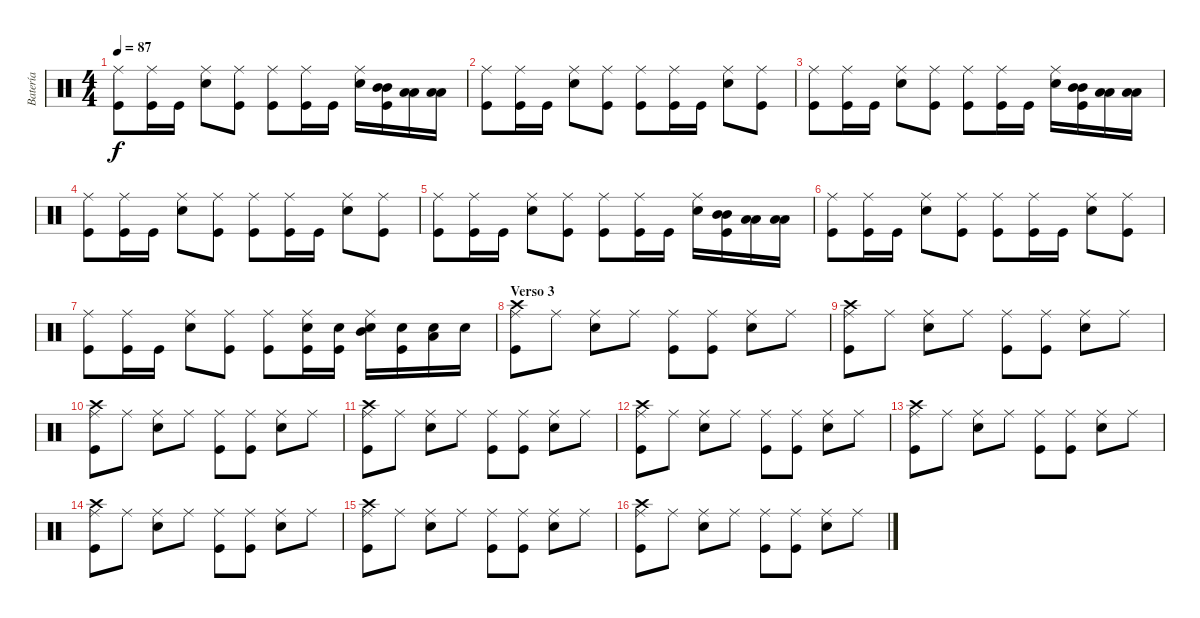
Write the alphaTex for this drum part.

\track ("Batería" "Batería") {instrument percussion}
\staff {score}
\articulation defaults
\ts (4 4)
\tempo 87
\clef neutral
\ks c
("Ride (middle)" "Kick (hit)").8{dy f} ("Ride (middle)" "Kick (hit)").16 "Kick (hit)".16 ("Ride (middle)" "Snare (hit) 2").8 ("Ride (middle)" "Kick (hit)").8 ("Ride (middle)" "Kick (hit)").8 ("Ride (middle)" "Kick (hit)").16 "Kick (hit)".16 ("Ride (middle)" "Snare (hit) 2").16 ("Mid Tom (hit)" "Mid Tom (hit)" "Kick (hit)").16 ("Low Tom (hit)" "Low Tom (hit)").16 ("Low Floor Tom (hit)" "Low Floor Tom (hit)").16 |
("Ride (middle)" "Kick (hit)").8 ("Ride (middle)" "Kick (hit)").16 "Kick (hit)".16 ("Ride (middle)" "Snare (hit) 2").8 ("Ride (middle)" "Kick (hit)").8 ("Ride (middle)" "Kick (hit)").8 ("Ride (middle)" "Kick (hit)").16 "Kick (hit)".16 ("Ride (middle)" "Snare (hit) 2").8 ("Ride (middle)" "Kick (hit)").8 |
("Ride (middle)" "Kick (hit)").8 ("Ride (middle)" "Kick (hit)").16 "Kick (hit)".16 ("Ride (middle)" "Snare (hit) 2").8 ("Ride (middle)" "Kick (hit)").8 ("Ride (middle)" "Kick (hit)").8 ("Ride (middle)" "Kick (hit)").16 "Kick (hit)".16 ("Ride (middle)" "Snare (hit) 2").16 ("Mid Tom (hit)" "Mid Tom (hit)" "Kick (hit)").16 ("Low Tom (hit)" "Low Tom (hit)").16 ("Low Floor Tom (hit)" "Low Floor Tom (hit)").16 |
("Ride (middle)" "Kick (hit)").8 ("Ride (middle)" "Kick (hit)").16 "Kick (hit)".16 ("Ride (middle)" "Snare (hit) 2").8 ("Ride (middle)" "Kick (hit)").8 ("Ride (middle)" "Kick (hit)").8 ("Ride (middle)" "Kick (hit)").16 "Kick (hit)".16 ("Ride (middle)" "Snare (hit) 2").8 ("Ride (middle)" "Kick (hit)").8 |
("Ride (middle)" "Kick (hit)").8 ("Ride (middle)" "Kick (hit)").16 "Kick (hit)".16 ("Ride (middle)" "Snare (hit) 2").8 ("Ride (middle)" "Kick (hit)").8 ("Ride (middle)" "Kick (hit)").8 ("Ride (middle)" "Kick (hit)").16 "Kick (hit)".16 ("Ride (middle)" "Snare (hit) 2").16 ("Mid Tom (hit)" "Mid Tom (hit)" "Kick (hit)").16 ("Low Tom (hit)" "Low Tom (hit)").16 ("Low Floor Tom (hit)" "Low Floor Tom (hit)").16 |
("Ride (middle)" "Kick (hit)").8 ("Ride (middle)" "Kick (hit)").16 "Kick (hit)".16 ("Ride (middle)" "Snare (hit) 2").8 ("Ride (middle)" "Kick (hit)").8 ("Ride (middle)" "Kick (hit)").8 ("Ride (middle)" "Kick (hit)").16 "Kick (hit)".16 ("Ride (middle)" "Snare (hit) 2").8 ("Ride (middle)" "Kick (hit)").8 |
("Ride (middle)" "Kick (hit)").8 ("Ride (middle)" "Kick (hit)").16 "Kick (hit)".16 ("Ride (middle)" "Snare (hit) 2").8 ("Ride (middle)" "Kick (hit)").8 ("Ride (middle)" "Kick (hit)").8 ("Ride (middle)" "Snare (hit) 2" "Kick (hit)").16 ("Snare (hit) 2" "Kick (hit)").16 ("Mid Tom (hit)" "Ride (middle)" "Snare (hit) 2").16 ("Snare (hit) 2" "Kick (hit)").16 ("Low Floor Tom (hit)" "Snare (hit) 2").16 "Snare (hit) 2".16 |
\section ("" "Verso 3")
("Crash high (hit)" "Ride (middle)" "Kick (hit)").8 "Ride (middle)".8 ("Ride (middle)" "Snare (hit) 2").8 "Ride (middle)".8 ("Ride (middle)" "Kick (hit)").8 ("Ride (middle)" "Kick (hit)").8 ("Ride (middle)" "Snare (hit) 2").8 "Ride (middle)".8 |
("Crash high (hit)" "Ride (middle)" "Kick (hit)").8 "Ride (middle)".8 ("Ride (middle)" "Snare (hit) 2").8 "Ride (middle)".8 ("Ride (middle)" "Kick (hit)").8 ("Ride (middle)" "Kick (hit)").8 ("Ride (middle)" "Snare (hit) 2").8 "Ride (middle)".8 |
("Crash high (hit)" "Ride (middle)" "Kick (hit)").8 "Ride (middle)".8 ("Ride (middle)" "Snare (hit) 2").8 "Ride (middle)".8 ("Ride (middle)" "Kick (hit)").8 ("Ride (middle)" "Kick (hit)").8 ("Ride (middle)" "Snare (hit) 2").8 "Ride (middle)".8 |
("Crash high (hit)" "Ride (middle)" "Kick (hit)").8 "Ride (middle)".8 ("Ride (middle)" "Snare (hit) 2").8 "Ride (middle)".8 ("Ride (middle)" "Kick (hit)").8 ("Ride (middle)" "Kick (hit)").8 ("Ride (middle)" "Snare (hit) 2").8 "Ride (middle)".8 |
("Crash high (hit)" "Ride (middle)" "Kick (hit)").8 "Ride (middle)".8 ("Ride (middle)" "Snare (hit) 2").8 "Ride (middle)".8 ("Ride (middle)" "Kick (hit)").8 ("Ride (middle)" "Kick (hit)").8 ("Ride (middle)" "Snare (hit) 2").8 "Ride (middle)".8 |
("Crash high (hit)" "Ride (middle)" "Kick (hit)").8 "Ride (middle)".8 ("Ride (middle)" "Snare (hit) 2").8 "Ride (middle)".8 ("Ride (middle)" "Kick (hit)").8 ("Ride (middle)" "Kick (hit)").8 ("Ride (middle)" "Snare (hit) 2").8 "Ride (middle)".8 |
("Crash high (hit)" "Ride (middle)" "Kick (hit)").8 "Ride (middle)".8 ("Ride (middle)" "Snare (hit) 2").8 "Ride (middle)".8 ("Ride (middle)" "Kick (hit)").8 ("Ride (middle)" "Kick (hit)").8 ("Ride (middle)" "Snare (hit) 2").8 "Ride (middle)".8 |
("Crash high (hit)" "Ride (middle)" "Kick (hit)").8 "Ride (middle)".8 ("Ride (middle)" "Snare (hit) 2").8 "Ride (middle)".8 ("Ride (middle)" "Kick (hit)").8 ("Ride (middle)" "Kick (hit)").8 ("Ride (middle)" "Snare (hit) 2").8 "Ride (middle)".8 |
("Crash high (hit)" "Ride (middle)" "Kick (hit)").8 "Ride (middle)".8 ("Ride (middle)" "Snare (hit) 2").8 "Ride (middle)".8 ("Ride (middle)" "Kick (hit)").8 ("Ride (middle)" "Kick (hit)").8 ("Ride (middle)" "Snare (hit) 2").8 "Ride (middle)".8
